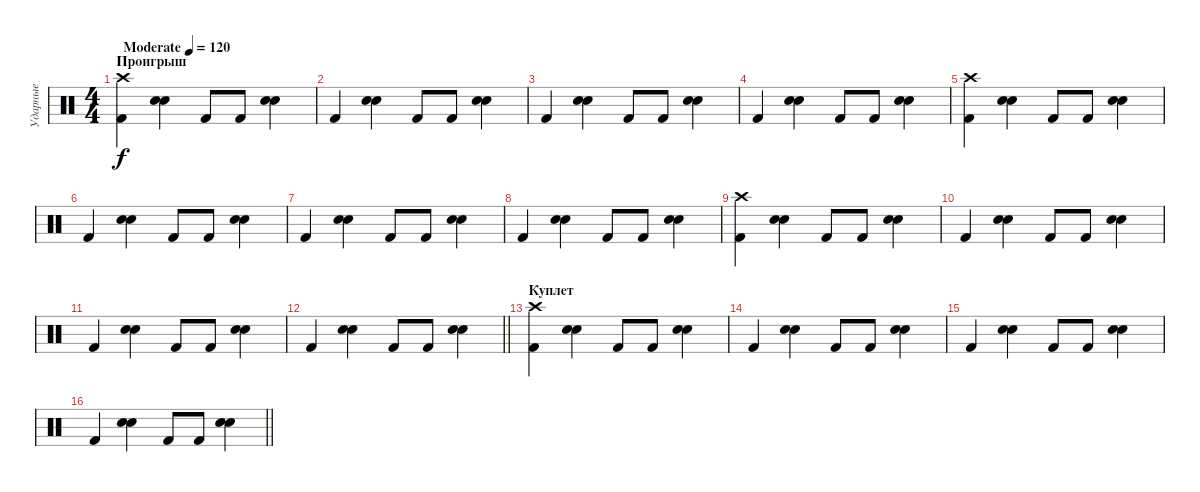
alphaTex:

\track ("Ударные" "Ударные") {instrument percussion}
\staff {score}
\articulation defaults
\ts (4 4)
\section ("" "Проигрыш")
\tempo (120 "Moderate")
\clef neutral
\ks c
("Kick (hit) 2" "Crash high (hit)").4{dy f} ("Snare (hit) 2" "Electric Snare (hit)").4 "Kick (hit) 2".8 "Kick (hit) 2".8 ("Snare (hit) 2" "Electric Snare (hit)").4 |
"Kick (hit) 2".4 ("Snare (hit) 2" "Electric Snare (hit)").4 "Kick (hit) 2".8 "Kick (hit) 2".8 ("Snare (hit) 2" "Electric Snare (hit)").4 |
"Kick (hit) 2".4 ("Snare (hit) 2" "Electric Snare (hit)").4 "Kick (hit) 2".8 "Kick (hit) 2".8 ("Snare (hit) 2" "Electric Snare (hit)").4 |
"Kick (hit) 2".4 ("Snare (hit) 2" "Electric Snare (hit)").4 "Kick (hit) 2".8 "Kick (hit) 2".8 ("Snare (hit) 2" "Electric Snare (hit)").4 |
("Kick (hit) 2" "Crash high (hit)").4 ("Snare (hit) 2" "Electric Snare (hit)").4 "Kick (hit) 2".8 "Kick (hit) 2".8 ("Snare (hit) 2" "Electric Snare (hit)").4 |
"Kick (hit) 2".4 ("Snare (hit) 2" "Electric Snare (hit)").4 "Kick (hit) 2".8 "Kick (hit) 2".8 ("Snare (hit) 2" "Electric Snare (hit)").4 |
"Kick (hit) 2".4 ("Snare (hit) 2" "Electric Snare (hit)").4 "Kick (hit) 2".8 "Kick (hit) 2".8 ("Snare (hit) 2" "Electric Snare (hit)").4 |
"Kick (hit) 2".4 ("Snare (hit) 2" "Electric Snare (hit)").4 "Kick (hit) 2".8 "Kick (hit) 2".8 ("Snare (hit) 2" "Electric Snare (hit)").4 |
("Kick (hit) 2" "Crash high (hit)").4 ("Snare (hit) 2" "Electric Snare (hit)").4 "Kick (hit) 2".8 "Kick (hit) 2".8 ("Snare (hit) 2" "Electric Snare (hit)").4 |
"Kick (hit) 2".4 ("Snare (hit) 2" "Electric Snare (hit)").4 "Kick (hit) 2".8 "Kick (hit) 2".8 ("Snare (hit) 2" "Electric Snare (hit)").4 |
"Kick (hit) 2".4 ("Snare (hit) 2" "Electric Snare (hit)").4 "Kick (hit) 2".8 "Kick (hit) 2".8 ("Snare (hit) 2" "Electric Snare (hit)").4 |
\barLineRight lightlight "Kick (hit) 2".4
("Snare (hit) 2" "Electric Snare (hit)").4 "Kick (hit) 2".8 "Kick (hit) 2".8 ("Snare (hit) 2" "Electric Snare (hit)").4 |
\section ("" "Куплет")
("Kick (hit) 2" "Crash high (hit)").4 ("Snare (hit) 2" "Electric Snare (hit)").4 "Kick (hit) 2".8 "Kick (hit) 2".8 ("Snare (hit) 2" "Electric Snare (hit)").4 |
"Kick (hit) 2".4 ("Snare (hit) 2" "Electric Snare (hit)").4 "Kick (hit) 2".8 "Kick (hit) 2".8 ("Snare (hit) 2" "Electric Snare (hit)").4 |
"Kick (hit) 2".4 ("Snare (hit) 2" "Electric Snare (hit)").4 "Kick (hit) 2".8 "Kick (hit) 2".8 ("Snare (hit) 2" "Electric Snare (hit)").4 |
\barLineRight lightlight "Kick (hit) 2".4
("Snare (hit) 2" "Electric Snare (hit)").4 "Kick (hit) 2".8 "Kick (hit) 2".8 ("Snare (hit) 2" "Electric Snare (hit)").4
